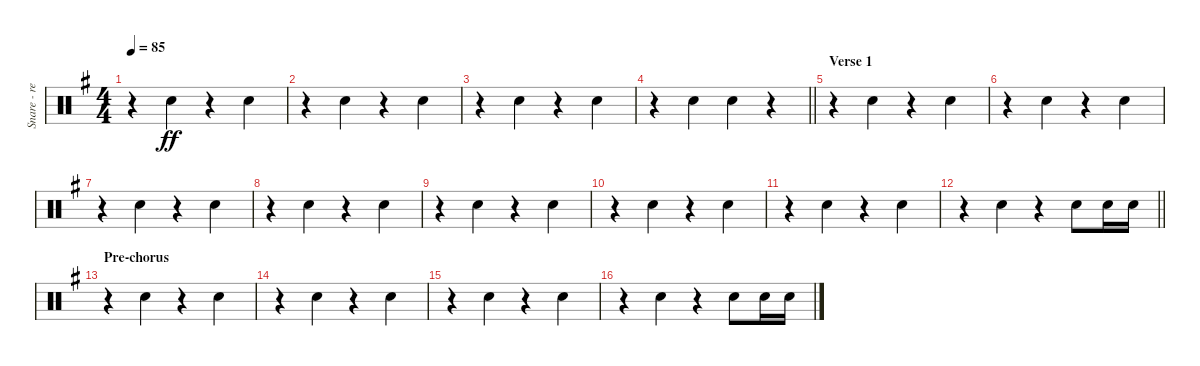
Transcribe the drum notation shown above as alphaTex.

\track ("Snare - reverb" "Snare - re") {instrument percussion}
\staff {score}
\articulation defaults
\ts (4 4)
\tempo 85
\clef neutral
\ks g
r.4{dy ff beam merge} "Snare (hit) 2".4 r.4{beam merge} "Snare (hit) 2".4 |
r.4{beam merge} "Snare (hit) 2".4 r.4{beam merge} "Snare (hit) 2".4 |
r.4{beam merge} "Snare (hit) 2".4 r.4{beam merge} "Snare (hit) 2".4 |
\barLineRight lightlight
r.4{beam merge} "Snare (hit) 2".4 "Snare (hit) 2".4 r.4 |
\section ("" "Verse 1")
r.4{beam merge} "Snare (hit) 2".4 r.4{beam merge} "Snare (hit) 2".4 |
r.4{beam merge} "Snare (hit) 2".4 r.4{beam merge} "Snare (hit) 2".4 |
r.4{beam merge} "Snare (hit) 2".4 r.4{beam merge} "Snare (hit) 2".4 |
r.4{beam merge} "Snare (hit) 2".4 r.4{beam merge} "Snare (hit) 2".4 |
r.4{beam merge} "Snare (hit) 2".4 r.4{beam merge} "Snare (hit) 2".4 |
r.4{beam merge} "Snare (hit) 2".4 r.4{beam merge} "Snare (hit) 2".4 |
r.4{beam merge} "Snare (hit) 2".4 r.4{beam merge} "Snare (hit) 2".4 |
\barLineRight lightlight
r.4{beam merge} "Snare (hit) 2".4 r.4 "Snare (hit) 2".8 "Snare (hit) 2".16 "Snare (hit) 2".16 |
\section ("" "Pre-chorus")
r.4{beam merge} "Snare (hit) 2".4 r.4{beam merge} "Snare (hit) 2".4 |
r.4{beam merge} "Snare (hit) 2".4 r.4{beam merge} "Snare (hit) 2".4 |
r.4{beam merge} "Snare (hit) 2".4 r.4{beam merge} "Snare (hit) 2".4 |
r.4{beam merge} "Snare (hit) 2".4 r.4 "Snare (hit) 2".8 "Snare (hit) 2".16 "Snare (hit) 2".16
